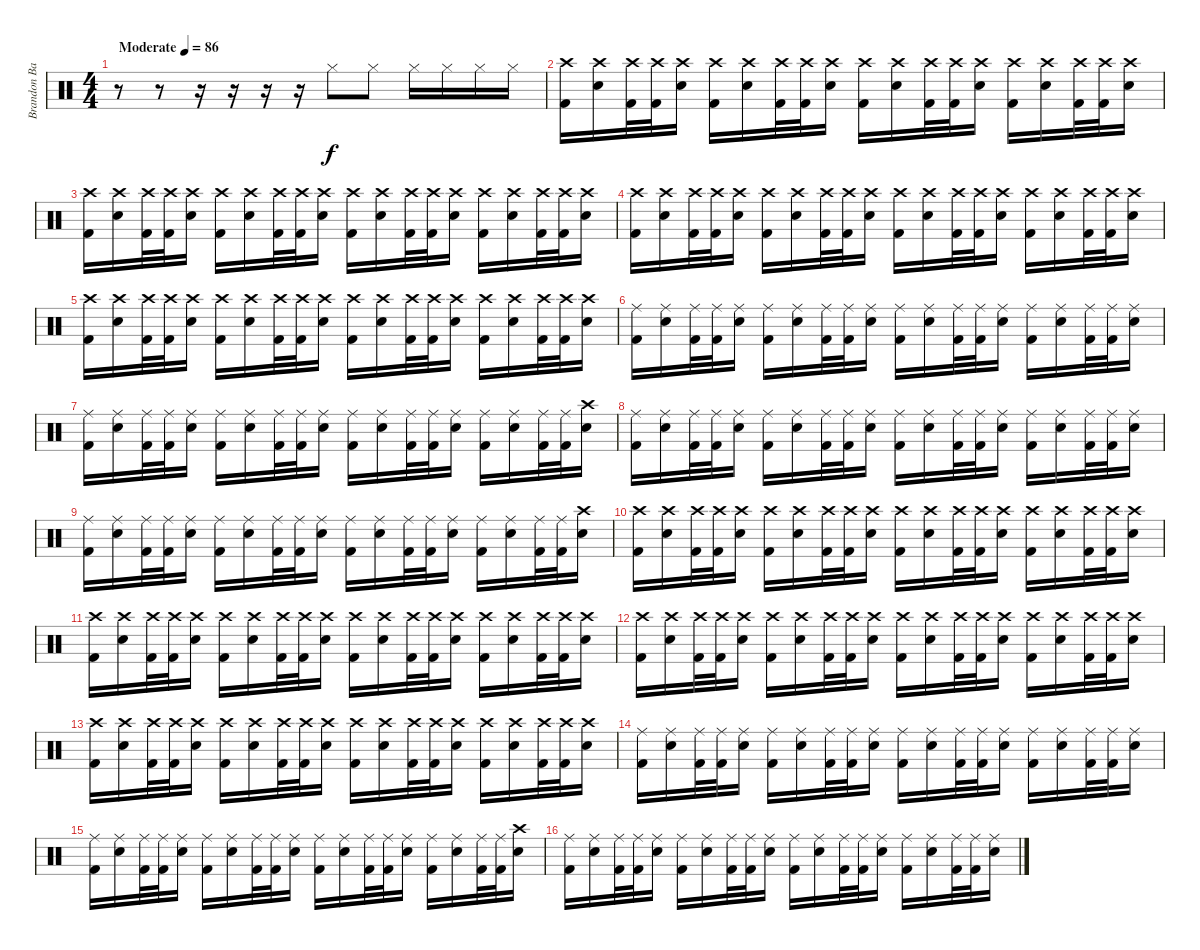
\track ("Brandon Barnes" "Brandon Ba") {instrument percussion}
\staff {score}
\articulation defaults
\ts (4 4)
\tempo (86 "Moderate")
\clef neutral
\ks c
r.8{dy f} r.8 r.16 r.16 r.16 r.16 "Hi-Hat (closed)".8 "Hi-Hat (closed)".8 "Hi-Hat (closed)".16 "Hi-Hat (closed)".16 "Hi-Hat (closed)".16 "Hi-Hat (closed)".16 |
("Kick (hit) 2" "Crash high (hit)").16 ("Electric Snare (hit)" "Crash high (hit)").16 ("Kick (hit) 2" "Crash high (hit)").32 ("Kick (hit) 2" "Crash high (hit)").32 ("Electric Snare (hit)" "Crash high (hit)").16 ("Kick (hit) 2" "Crash high (hit)").16 ("Electric Snare (hit)" "Crash high (hit)").16 ("Kick (hit) 2" "Crash high (hit)").32 ("Kick (hit) 2" "Crash high (hit)").32 ("Electric Snare (hit)" "Crash high (hit)").16 ("Kick (hit) 2" "Crash high (hit)").16 ("Electric Snare (hit)" "Crash high (hit)").16 ("Kick (hit) 2" "Crash high (hit)").32 ("Kick (hit) 2" "Crash high (hit)").32 ("Electric Snare (hit)" "Crash high (hit)").16 ("Kick (hit) 2" "Crash high (hit)").16 ("Electric Snare (hit)" "Crash high (hit)").16 ("Kick (hit) 2" "Crash high (hit)").32 ("Kick (hit) 2" "Crash high (hit)").32 ("Electric Snare (hit)" "Crash high (hit)").16 |
("Kick (hit) 2" "Crash high (hit)").16 ("Electric Snare (hit)" "Crash high (hit)").16 ("Kick (hit) 2" "Crash high (hit)").32 ("Kick (hit) 2" "Crash high (hit)").32 ("Electric Snare (hit)" "Crash high (hit)").16 ("Kick (hit) 2" "Crash high (hit)").16 ("Electric Snare (hit)" "Crash high (hit)").16 ("Kick (hit) 2" "Crash high (hit)").32 ("Kick (hit) 2" "Crash high (hit)").32 ("Electric Snare (hit)" "Crash high (hit)").16 ("Kick (hit) 2" "Crash high (hit)").16 ("Electric Snare (hit)" "Crash high (hit)").16 ("Kick (hit) 2" "Crash high (hit)").32 ("Kick (hit) 2" "Crash high (hit)").32 ("Electric Snare (hit)" "Crash high (hit)").16 ("Kick (hit) 2" "Crash high (hit)").16 ("Electric Snare (hit)" "Crash high (hit)").16 ("Kick (hit) 2" "Crash high (hit)").32 ("Kick (hit) 2" "Crash high (hit)").32 ("Electric Snare (hit)" "Crash high (hit)").16 |
("Kick (hit) 2" "Crash high (hit)").16 ("Electric Snare (hit)" "Crash high (hit)").16 ("Kick (hit) 2" "Crash high (hit)").32 ("Kick (hit) 2" "Crash high (hit)").32 ("Electric Snare (hit)" "Crash high (hit)").16 ("Kick (hit) 2" "Crash high (hit)").16 ("Electric Snare (hit)" "Crash high (hit)").16 ("Kick (hit) 2" "Crash high (hit)").32 ("Kick (hit) 2" "Crash high (hit)").32 ("Electric Snare (hit)" "Crash high (hit)").16 ("Kick (hit) 2" "Crash high (hit)").16 ("Electric Snare (hit)" "Crash high (hit)").16 ("Kick (hit) 2" "Crash high (hit)").32 ("Kick (hit) 2" "Crash high (hit)").32 ("Electric Snare (hit)" "Crash high (hit)").16 ("Kick (hit) 2" "Crash high (hit)").16 ("Electric Snare (hit)" "Crash high (hit)").16 ("Kick (hit) 2" "Crash high (hit)").32 ("Kick (hit) 2" "Crash high (hit)").32 ("Electric Snare (hit)" "Crash high (hit)").16 |
("Kick (hit) 2" "Crash high (hit)").16 ("Electric Snare (hit)" "Crash high (hit)").16 ("Kick (hit) 2" "Crash high (hit)").32 ("Kick (hit) 2" "Crash high (hit)").32 ("Electric Snare (hit)" "Crash high (hit)").16 ("Kick (hit) 2" "Crash high (hit)").16 ("Electric Snare (hit)" "Crash high (hit)").16 ("Kick (hit) 2" "Crash high (hit)").32 ("Kick (hit) 2" "Crash high (hit)").32 ("Electric Snare (hit)" "Crash high (hit)").16 ("Kick (hit) 2" "Crash high (hit)").16 ("Electric Snare (hit)" "Crash high (hit)").16 ("Kick (hit) 2" "Crash high (hit)").32 ("Kick (hit) 2" "Crash high (hit)").32 ("Electric Snare (hit)" "Crash high (hit)").16 ("Kick (hit) 2" "Crash high (hit)").16 ("Electric Snare (hit)" "Crash high (hit)").16 ("Kick (hit) 2" "Crash high (hit)").32 ("Kick (hit) 2" "Crash high (hit)").32 ("Electric Snare (hit)" "Crash high (hit)").16 |
("Kick (hit) 2" "Ride (middle)").16 ("Electric Snare (hit)" "Ride (middle)").16 ("Kick (hit) 2" "Ride (middle)").32 ("Kick (hit) 2" "Ride (middle)").32 ("Electric Snare (hit)" "Ride (middle)").16 ("Kick (hit) 2" "Ride (middle)").16 ("Electric Snare (hit)" "Ride (middle)").16 ("Kick (hit) 2" "Ride (middle)").32 ("Kick (hit) 2" "Ride (middle)").32 ("Electric Snare (hit)" "Ride (middle)").16 ("Kick (hit) 2" "Ride (middle)").16 ("Electric Snare (hit)" "Ride (middle)").16 ("Kick (hit) 2" "Ride (middle)").32 ("Kick (hit) 2" "Ride (middle)").32 ("Electric Snare (hit)" "Ride (middle)").16 ("Kick (hit) 2" "Ride (middle)").16 ("Electric Snare (hit)" "Ride (middle)").16 ("Kick (hit) 2" "Ride (middle)").32 ("Kick (hit) 2" "Ride (middle)").32 ("Electric Snare (hit)" "Ride (middle)").16 |
("Kick (hit) 2" "Ride (middle)").16 ("Electric Snare (hit)" "Ride (middle)").16 ("Kick (hit) 2" "Ride (middle)").32 ("Kick (hit) 2" "Ride (middle)").32 ("Electric Snare (hit)" "Ride (middle)").16 ("Kick (hit) 2" "Ride (middle)").16 ("Electric Snare (hit)" "Ride (middle)").16 ("Kick (hit) 2" "Ride (middle)").32 ("Kick (hit) 2" "Ride (middle)").32 ("Electric Snare (hit)" "Ride (middle)").16 ("Kick (hit) 2" "Ride (middle)").16 ("Electric Snare (hit)" "Ride (middle)").16 ("Kick (hit) 2" "Ride (middle)").32 ("Kick (hit) 2" "Ride (middle)").32 ("Electric Snare (hit)" "Ride (middle)").16 ("Kick (hit) 2" "Ride (middle)").16 ("Electric Snare (hit)" "Ride (middle)").16 ("Kick (hit) 2" "Ride (middle)").32 ("Kick (hit) 2" "Ride (middle)").32 ("Electric Snare (hit)" "Crash high (hit)").16 |
("Kick (hit) 2" "Ride (middle)").16 ("Electric Snare (hit)" "Ride (middle)").16 ("Kick (hit) 2" "Ride (middle)").32 ("Kick (hit) 2" "Ride (middle)").32 ("Electric Snare (hit)" "Ride (middle)").16 ("Kick (hit) 2" "Ride (middle)").16 ("Electric Snare (hit)" "Ride (middle)").16 ("Kick (hit) 2" "Ride (middle)").32 ("Kick (hit) 2" "Ride (middle)").32 ("Electric Snare (hit)" "Ride (middle)").16 ("Kick (hit) 2" "Ride (middle)").16 ("Electric Snare (hit)" "Ride (middle)").16 ("Kick (hit) 2" "Ride (middle)").32 ("Kick (hit) 2" "Ride (middle)").32 ("Electric Snare (hit)" "Ride (middle)").16 ("Kick (hit) 2" "Ride (middle)").16 ("Electric Snare (hit)" "Ride (middle)").16 ("Kick (hit) 2" "Ride (middle)").32 ("Kick (hit) 2" "Ride (middle)").32 ("Electric Snare (hit)" "Ride (middle)").16 |
("Kick (hit) 2" "Ride (middle)").16 ("Electric Snare (hit)" "Ride (middle)").16 ("Kick (hit) 2" "Ride (middle)").32 ("Kick (hit) 2" "Ride (middle)").32 ("Electric Snare (hit)" "Ride (middle)").16 ("Kick (hit) 2" "Ride (middle)").16 ("Electric Snare (hit)" "Ride (middle)").16 ("Kick (hit) 2" "Ride (middle)").32 ("Kick (hit) 2" "Ride (middle)").32 ("Electric Snare (hit)" "Ride (middle)").16 ("Kick (hit) 2" "Ride (middle)").16 ("Electric Snare (hit)" "Ride (middle)").16 ("Kick (hit) 2" "Ride (middle)").32 ("Kick (hit) 2" "Ride (middle)").32 ("Electric Snare (hit)" "Ride (middle)").16 ("Kick (hit) 2" "Ride (middle)").16 ("Electric Snare (hit)" "Ride (middle)").16 ("Kick (hit) 2" "Ride (middle)").32 ("Kick (hit) 2" "Ride (middle)").32 ("Electric Snare (hit)" "Crash high (hit)").16 |
("Kick (hit) 2" "Crash high (hit)").16 ("Electric Snare (hit)" "Crash high (hit)").16 ("Kick (hit) 2" "Crash high (hit)").32 ("Kick (hit) 2" "Crash high (hit)").32 ("Electric Snare (hit)" "Crash high (hit)").16 ("Kick (hit) 2" "Crash high (hit)").16 ("Electric Snare (hit)" "Crash high (hit)").16 ("Kick (hit) 2" "Crash high (hit)").32 ("Kick (hit) 2" "Crash high (hit)").32 ("Electric Snare (hit)" "Crash high (hit)").16 ("Kick (hit) 2" "Crash high (hit)").16 ("Electric Snare (hit)" "Crash high (hit)").16 ("Kick (hit) 2" "Crash high (hit)").32 ("Kick (hit) 2" "Crash high (hit)").32 ("Electric Snare (hit)" "Crash high (hit)").16 ("Kick (hit) 2" "Crash high (hit)").16 ("Electric Snare (hit)" "Crash high (hit)").16 ("Kick (hit) 2" "Crash high (hit)").32 ("Kick (hit) 2" "Crash high (hit)").32 ("Electric Snare (hit)" "Crash high (hit)").16 |
("Kick (hit) 2" "Crash high (hit)").16 ("Electric Snare (hit)" "Crash high (hit)").16 ("Kick (hit) 2" "Crash high (hit)").32 ("Kick (hit) 2" "Crash high (hit)").32 ("Electric Snare (hit)" "Crash high (hit)").16 ("Kick (hit) 2" "Crash high (hit)").16 ("Electric Snare (hit)" "Crash high (hit)").16 ("Kick (hit) 2" "Crash high (hit)").32 ("Kick (hit) 2" "Crash high (hit)").32 ("Electric Snare (hit)" "Crash high (hit)").16 ("Kick (hit) 2" "Crash high (hit)").16 ("Electric Snare (hit)" "Crash high (hit)").16 ("Kick (hit) 2" "Crash high (hit)").32 ("Kick (hit) 2" "Crash high (hit)").32 ("Electric Snare (hit)" "Crash high (hit)").16 ("Kick (hit) 2" "Crash high (hit)").16 ("Electric Snare (hit)" "Crash high (hit)").16 ("Kick (hit) 2" "Crash high (hit)").32 ("Kick (hit) 2" "Crash high (hit)").32 ("Electric Snare (hit)" "Crash high (hit)").16 |
("Kick (hit) 2" "Crash high (hit)").16 ("Electric Snare (hit)" "Crash high (hit)").16 ("Kick (hit) 2" "Crash high (hit)").32 ("Kick (hit) 2" "Crash high (hit)").32 ("Electric Snare (hit)" "Crash high (hit)").16 ("Kick (hit) 2" "Crash high (hit)").16 ("Electric Snare (hit)" "Crash high (hit)").16 ("Kick (hit) 2" "Crash high (hit)").32 ("Kick (hit) 2" "Crash high (hit)").32 ("Electric Snare (hit)" "Crash high (hit)").16 ("Kick (hit) 2" "Crash high (hit)").16 ("Electric Snare (hit)" "Crash high (hit)").16 ("Kick (hit) 2" "Crash high (hit)").32 ("Kick (hit) 2" "Crash high (hit)").32 ("Electric Snare (hit)" "Crash high (hit)").16 ("Kick (hit) 2" "Crash high (hit)").16 ("Electric Snare (hit)" "Crash high (hit)").16 ("Kick (hit) 2" "Crash high (hit)").32 ("Kick (hit) 2" "Crash high (hit)").32 ("Electric Snare (hit)" "Crash high (hit)").16 |
("Kick (hit) 2" "Crash high (hit)").16 ("Electric Snare (hit)" "Crash high (hit)").16 ("Kick (hit) 2" "Crash high (hit)").32 ("Kick (hit) 2" "Crash high (hit)").32 ("Electric Snare (hit)" "Crash high (hit)").16 ("Kick (hit) 2" "Crash high (hit)").16 ("Electric Snare (hit)" "Crash high (hit)").16 ("Kick (hit) 2" "Crash high (hit)").32 ("Kick (hit) 2" "Crash high (hit)").32 ("Electric Snare (hit)" "Crash high (hit)").16 ("Kick (hit) 2" "Crash high (hit)").16 ("Electric Snare (hit)" "Crash high (hit)").16 ("Kick (hit) 2" "Crash high (hit)").32 ("Kick (hit) 2" "Crash high (hit)").32 ("Electric Snare (hit)" "Crash high (hit)").16 ("Kick (hit) 2" "Crash high (hit)").16 ("Electric Snare (hit)" "Crash high (hit)").16 ("Kick (hit) 2" "Crash high (hit)").32 ("Kick (hit) 2" "Crash high (hit)").32 ("Electric Snare (hit)" "Crash high (hit)").16 |
("Kick (hit) 2" "Ride (middle)").16 ("Electric Snare (hit)" "Ride (middle)").16 ("Kick (hit) 2" "Ride (middle)").32 ("Kick (hit) 2" "Ride (middle)").32 ("Electric Snare (hit)" "Ride (middle)").16 ("Kick (hit) 2" "Ride (middle)").16 ("Electric Snare (hit)" "Ride (middle)").16 ("Kick (hit) 2" "Ride (middle)").32 ("Kick (hit) 2" "Ride (middle)").32 ("Electric Snare (hit)" "Ride (middle)").16 ("Kick (hit) 2" "Ride (middle)").16 ("Electric Snare (hit)" "Ride (middle)").16 ("Kick (hit) 2" "Ride (middle)").32 ("Kick (hit) 2" "Ride (middle)").32 ("Electric Snare (hit)" "Ride (middle)").16 ("Kick (hit) 2" "Ride (middle)").16 ("Electric Snare (hit)" "Ride (middle)").16 ("Kick (hit) 2" "Ride (middle)").32 ("Kick (hit) 2" "Ride (middle)").32 ("Electric Snare (hit)" "Ride (middle)").16 |
("Kick (hit) 2" "Ride (middle)").16 ("Electric Snare (hit)" "Ride (middle)").16 ("Kick (hit) 2" "Ride (middle)").32 ("Kick (hit) 2" "Ride (middle)").32 ("Electric Snare (hit)" "Ride (middle)").16 ("Kick (hit) 2" "Ride (middle)").16 ("Electric Snare (hit)" "Ride (middle)").16 ("Kick (hit) 2" "Ride (middle)").32 ("Kick (hit) 2" "Ride (middle)").32 ("Electric Snare (hit)" "Ride (middle)").16 ("Kick (hit) 2" "Ride (middle)").16 ("Electric Snare (hit)" "Ride (middle)").16 ("Kick (hit) 2" "Ride (middle)").32 ("Kick (hit) 2" "Ride (middle)").32 ("Electric Snare (hit)" "Ride (middle)").16 ("Kick (hit) 2" "Ride (middle)").16 ("Electric Snare (hit)" "Ride (middle)").16 ("Kick (hit) 2" "Ride (middle)").32 ("Kick (hit) 2" "Ride (middle)").32 ("Electric Snare (hit)" "Crash high (hit)").16 |
("Kick (hit) 2" "Ride (middle)").16 ("Electric Snare (hit)" "Ride (middle)").16 ("Kick (hit) 2" "Ride (middle)").32 ("Kick (hit) 2" "Ride (middle)").32 ("Electric Snare (hit)" "Ride (middle)").16 ("Kick (hit) 2" "Ride (middle)").16 ("Electric Snare (hit)" "Ride (middle)").16 ("Kick (hit) 2" "Ride (middle)").32 ("Kick (hit) 2" "Ride (middle)").32 ("Electric Snare (hit)" "Ride (middle)").16 ("Kick (hit) 2" "Ride (middle)").16 ("Electric Snare (hit)" "Ride (middle)").16 ("Kick (hit) 2" "Ride (middle)").32 ("Kick (hit) 2" "Ride (middle)").32 ("Electric Snare (hit)" "Ride (middle)").16 ("Kick (hit) 2" "Ride (middle)").16 ("Electric Snare (hit)" "Ride (middle)").16 ("Kick (hit) 2" "Ride (middle)").32 ("Kick (hit) 2" "Ride (middle)").32 ("Electric Snare (hit)" "Ride (middle)").16
